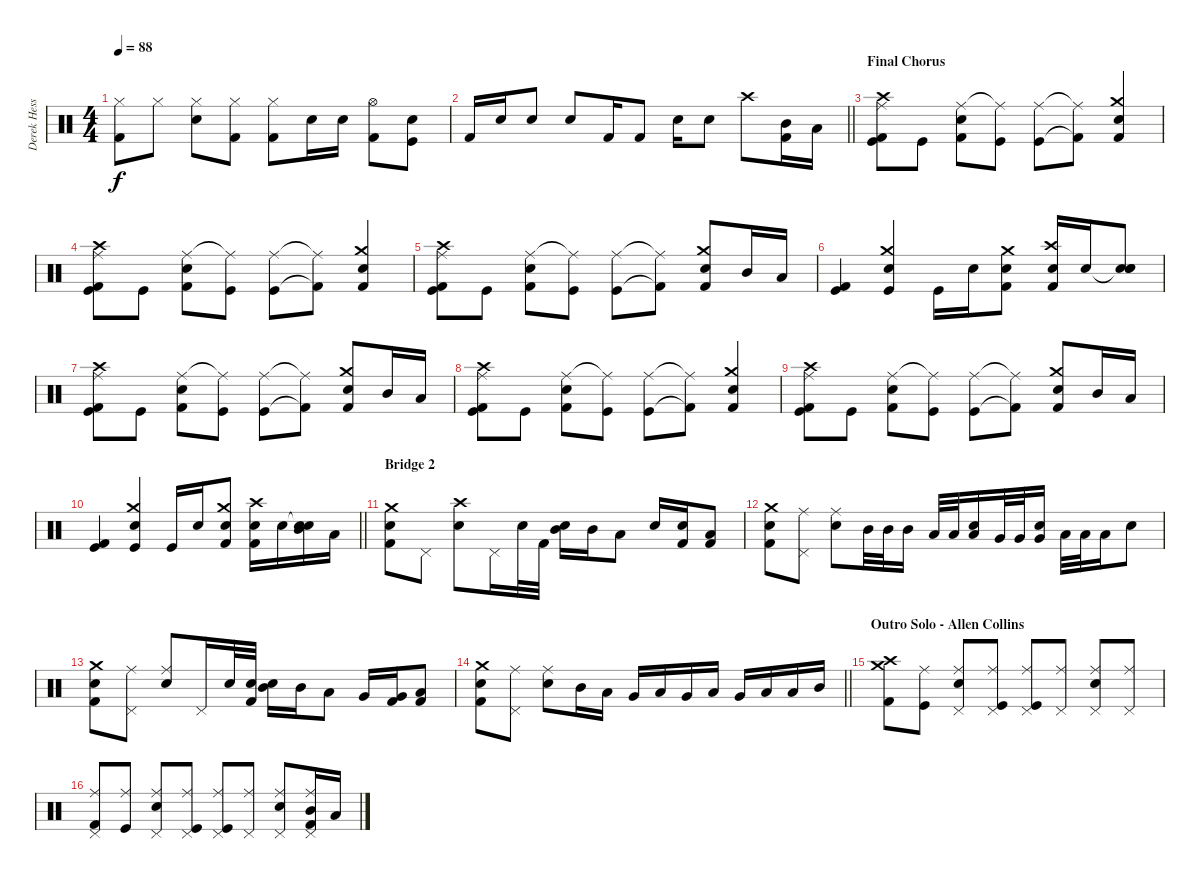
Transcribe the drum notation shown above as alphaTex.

\track ("Derek Hess" "Derek Hess") {instrument percussion}
\staff {score}
\articulation defaults
\ts (4 4)
\tempo 88
\clef neutral
\ks c
("Hi-Hat (closed)" "Kick (hit) 2").8{dy f} "Hi-Hat (closed)".8 ("Electric Snare (hit)" "Hi-Hat (closed)").8 ("Hi-Hat (closed)" "Kick (hit) 2").8 ("Hi-Hat (closed)" "Kick (hit) 2").8 "Electric Snare (hit)".16 "Electric Snare (hit)".16 ("Hi-Hat (open)" "Kick (hit) 2").8 ("Electric Snare (hit)" "Kick (hit)").8 |
\barLineRight lightlight "Kick (hit) 2".16 "Electric Snare (hit)".16 "Electric Snare (hit)".8 "Electric Snare (hit)".8 "Kick (hit) 2".16 "Kick (hit) 2".8 "Electric Snare (hit)".16 "Electric Snare (hit)".8 "Crash high (hit)".8
("Mid Tom (hit)" "Kick (hit) 2").16 "Low Tom (hit)".16 |
\section ("" "Final Chorus")
("Crash high (hit)" "Ride (middle)" "Kick (hit) 2" "Kick (hit)").8 "Kick (hit)".8 ("Ride (middle)" "Electric Snare (hit)" "Kick (hit) 2").8 ("Ride (middle)"{t} "Kick (hit)").8 ("Ride (middle)" "Kick (hit)").8 ("Ride (middle)"{t} "Kick (hit) 2"{t}).8 ("Crash medium (hit)" "Snare (hit) 2" "Kick (hit) 2").4 |
("Crash high (hit)" "Ride (middle)" "Kick (hit) 2" "Kick (hit)").8 "Kick (hit)".8 ("Ride (middle)" "Electric Snare (hit)" "Kick (hit) 2").8 ("Ride (middle)"{t} "Kick (hit)").8 ("Ride (middle)" "Kick (hit)").8 ("Ride (middle)"{t} "Kick (hit) 2"{t}).8 ("Crash medium (hit)" "Snare (hit) 2" "Kick (hit) 2").4 |
("Crash high (hit)" "Ride (middle)" "Kick (hit) 2" "Kick (hit)").8 "Kick (hit)".8 ("Ride (middle)" "Electric Snare (hit)" "Kick (hit) 2").8 ("Ride (middle)"{t} "Kick (hit)").8 ("Ride (middle)" "Kick (hit)").8 ("Ride (middle)"{t} "Kick (hit) 2"{t}).8 ("Crash medium (hit)" "Snare (hit) 2" "Kick (hit) 2").8 "Mid Tom (hit)".16 "Low Tom (hit)".16 |
("Kick (hit) 2" "Kick (hit)").4 ("Crash medium (hit)" "Snare (hit) 2" "Kick (hit)").4 "Kick (hit)".16 "Electric Snare (hit)".16 ("Crash medium (hit)" "Electric Snare (hit)" "Kick (hit) 2").8 ("Crash high (hit)" "Snare (hit) 2" "Kick (hit) 2").16 "Electric Snare (hit)".16 ("Snare (hit)"{t} "Electric Snare (hit)" "Snare (hit) 2").8 |
("Crash high (hit)" "Ride (middle)" "Kick (hit) 2" "Kick (hit)").8 "Kick (hit)".8 ("Ride (middle)" "Electric Snare (hit)" "Kick (hit) 2").8 ("Ride (middle)"{t} "Kick (hit)").8 ("Ride (middle)" "Kick (hit)").8 ("Ride (middle)"{t} "Kick (hit) 2"{t}).8 ("Crash medium (hit)" "Snare (hit) 2" "Kick (hit) 2").8 "Mid Tom (hit)".16 "Low Tom (hit)".16 |
("Crash high (hit)" "Ride (middle)" "Kick (hit) 2" "Kick (hit)").8 "Kick (hit)".8 ("Ride (middle)" "Electric Snare (hit)" "Kick (hit) 2").8 ("Ride (middle)"{t} "Kick (hit)").8 ("Ride (middle)" "Kick (hit)").8 ("Ride (middle)"{t} "Kick (hit) 2"{t}).8 ("Crash medium (hit)" "Snare (hit) 2" "Kick (hit) 2").4 |
("Crash high (hit)" "Ride (middle)" "Kick (hit) 2" "Kick (hit)").8 "Kick (hit)".8 ("Ride (middle)" "Electric Snare (hit)" "Kick (hit) 2").8 ("Ride (middle)"{t} "Kick (hit)").8 ("Ride (middle)" "Kick (hit)").8 ("Ride (middle)"{t} "Kick (hit) 2"{t}).8 ("Crash medium (hit)" "Snare (hit) 2" "Kick (hit) 2").8 "Mid Tom (hit)".16 "Low Tom (hit)".16 |
\barLineRight lightlight
("Kick (hit) 2" "Kick (hit)").4 ("Crash medium (hit)" "Snare (hit) 2" "Kick (hit)").4 "Kick (hit)".16 "Electric Snare (hit)".16 ("Crash medium (hit)" "Snare (hit) 2" "Kick (hit) 2").8 ("Crash high (hit)" "Electric Snare (hit)" "Kick (hit) 2").16 "Electric Snare (hit)".16 ("Snare (hit)"{t} "Mid Tom (hit)" "Snare (hit) 2").16 "Low Tom (hit)".16 |
\section ("" "Bridge 2")
("Crash medium (hit)" "Electric Snare (hit)" "Kick (hit) 2").8 "Pedal Hi-Hat (hit)".8 ("Crash high (hit)" "Electric Snare (hit)").8 "Pedal Hi-Hat (hit)".16 "Electric Snare (hit)".32 "Kick (hit) 2".32 ("Electric Snare (hit)" "Mid Tom (hit)").16 "Mid Tom (hit)".16 "Low Tom (hit)".8 "Electric Snare (hit)".16 ("Electric Snare (hit)" "Kick (hit) 2").16 ("Low Floor Tom (hit)" "Kick (hit) 2").8 |
("Crash medium (hit)" "Electric Snare (hit)" "Kick (hit) 2").8 ("Ride (middle)" "Pedal Hi-Hat (hit)").8 ("Ride (middle)" "Electric Snare (hit)").8 "Mid Tom (hit)".32 "Mid Tom (hit)".32 "Mid Tom (hit)".16 "Low Tom (hit)".32 "Low Tom (hit)".32 ("Electric Snare (hit)" "Low Tom (hit)").16 "Very Low Tom (hit)".32 "Very Low Tom (hit)".32 ("Electric Snare (hit)" "Very Low Tom (hit)").16 "Low Floor Tom (hit)".32 "Low Floor Tom (hit)".32 "Low Floor Tom (hit)".16 "Electric Snare (hit)".8 |
("Crash medium (hit)" "Electric Snare (hit)" "Kick (hit) 2").8 ("Ride (middle)" "Pedal Hi-Hat (hit)").8 ("Ride (middle)" "Electric Snare (hit)").8 "Pedal Hi-Hat (hit)".16 "Electric Snare (hit)".32 ("Electric Snare (hit)" "Kick (hit) 2").32 ("Electric Snare (hit)" "Mid Tom (hit)").16 "Mid Tom (hit)".16 "Low Tom (hit)".8 "Very Low Tom (hit)".16 ("Very Low Tom (hit)" "Kick (hit) 2").16 ("Low Floor Tom (hit)" "Kick (hit) 2").8 |
\barLineRight lightlight
("Crash medium (hit)" "Electric Snare (hit)" "Kick (hit) 2").8 ("Ride (middle)" "Pedal Hi-Hat (hit)").8 ("Ride (middle)" "Electric Snare (hit)").8 "Mid Tom (hit)".16 "Low Tom (hit)".16 "Very Low Tom (hit)".16 "Low Floor Tom (hit)".16 "Very Low Tom (hit)".16 "Low Floor Tom (hit)".16 "Very Low Tom (hit)".16 "Low Floor Tom (hit)".16 "Low Tom (hit)".16 "Mid Tom (hit)".16 |
\section ("" "Outro Solo - Allen Collins")
("Crash high (hit)" "Crash medium (hit)" "Kick (hit) 2").8 ("Ride (middle)" "Kick (hit)").8 ("Ride (middle)" "Pedal Hi-Hat (hit)" "Electric Snare (hit)").8 ("Ride (middle)" "Pedal Hi-Hat (hit)" "Kick (hit)").8 ("Ride (middle)" "Pedal Hi-Hat (hit)" "Kick (hit)").8 ("Ride (middle)" "Pedal Hi-Hat (hit)").8 ("Ride (middle)" "Pedal Hi-Hat (hit)" "Electric Snare (hit)").8 ("Ride (middle)" "Pedal Hi-Hat (hit)").8 |
("Ride (middle)" "Pedal Hi-Hat (hit)" "Kick (hit) 2").8 ("Ride (middle)" "Kick (hit)").8 ("Ride (middle)" "Pedal Hi-Hat (hit)" "Electric Snare (hit)").8 ("Ride (middle)" "Pedal Hi-Hat (hit)" "Kick (hit)").8 ("Ride (middle)" "Pedal Hi-Hat (hit)" "Kick (hit)").8 ("Ride (middle)" "Pedal Hi-Hat (hit)").8 ("Ride (middle)" "Pedal Hi-Hat (hit)" "Electric Snare (hit)").8 ("Ride (middle)" "Pedal Hi-Hat (hit)" "Mid Tom (hit)" "Kick (hit) 2").16 "Low Tom (hit)".16
